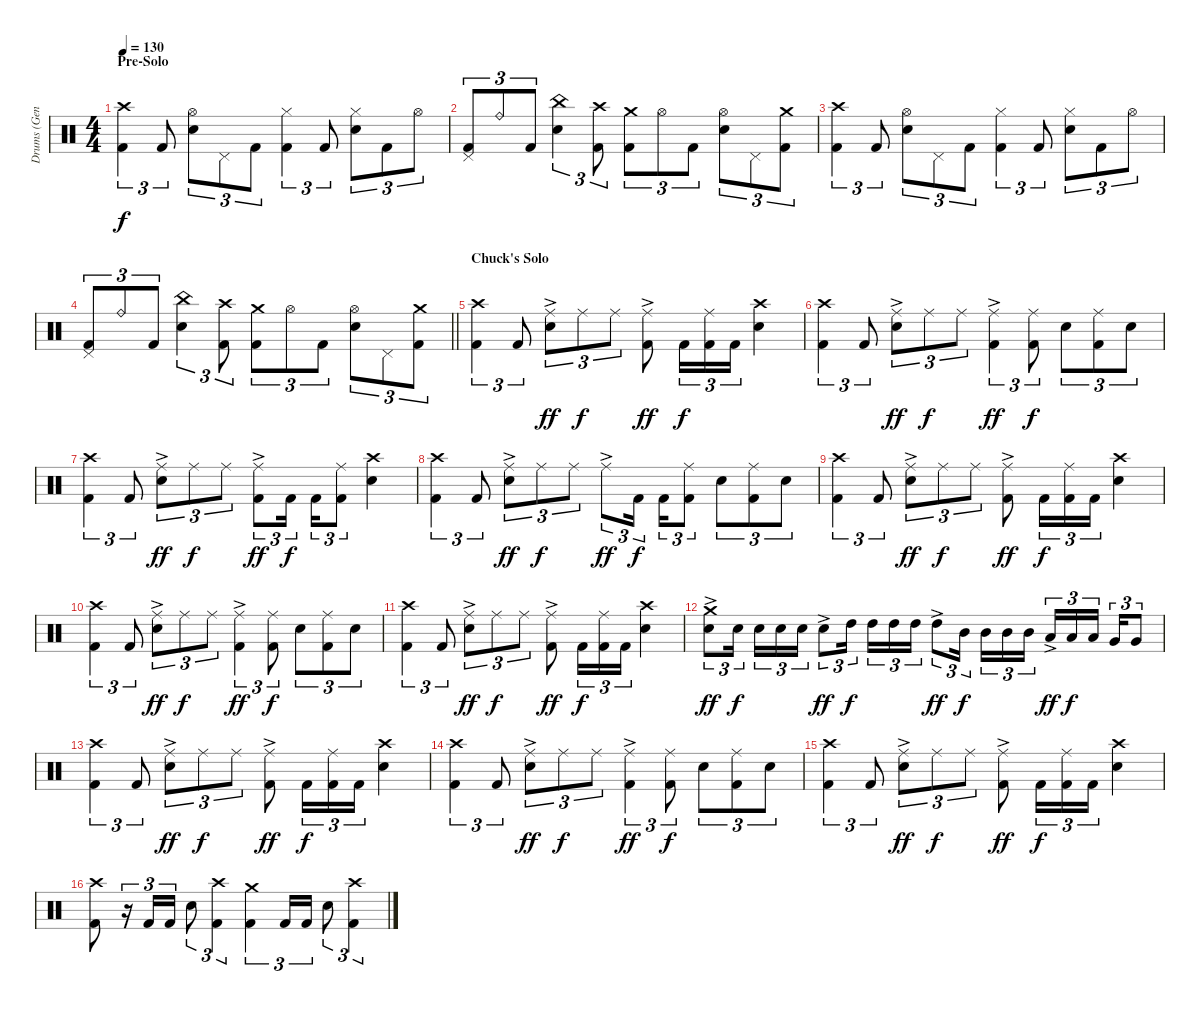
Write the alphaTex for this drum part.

\track ("Drums (Gene Hoglan)" "Drums (Gen") {instrument percussion}
\staff {score}
\articulation defaults
\ts (4 4)
\section ("" "Pre-Solo")
\tempo 130
\clef neutral
\ks c
("Crash high (hit)" "Kick (hit) 2").4{tu (3 2) dy f} "Kick (hit) 2".8{tu (3 2)} ("Hi-Hat (open)" "Snare (hit) 2").8{tu (3 2)} "Pedal Hi-Hat (hit)".8{tu (3 2)} "Kick (hit) 2".8{tu (3 2)} ("Hi-Hat (closed)" "Kick (hit) 2").4{tu (3 2)} "Kick (hit) 2".8{tu (3 2)} ("Hi-Hat (closed)" "Snare (hit) 2").8{tu (3 2)} "Kick (hit) 2".8{tu (3 2)} "Hi-Hat (open)".8{tu (3 2)} |
("Pedal Hi-Hat (hit)" "Kick (hit) 2").8{tu (3 2)} "Ride (bell)".8{tu (3 2)} "Kick (hit) 2".8{tu (3 2)} ("China (hit)" "Snare (hit) 2").4{tu (3 2)} ("Crash high (hit)" "Kick (hit) 2").8{tu (3 2)} ("Crash medium (hit)" "Kick (hit) 2").8{tu (3 2)} "Hi-Hat (open)".8{tu (3 2)} "Kick (hit) 2".8{tu (3 2)} ("Hi-Hat (open)" "Snare (hit) 2").8{tu (3 2)} "Pedal Hi-Hat (hit)".8{tu (3 2)} ("Crash medium (hit)" "Kick (hit) 2").8{tu (3 2)} |
("Crash high (hit)" "Kick (hit) 2").4{tu (3 2)} "Kick (hit) 2".8{tu (3 2)} ("Hi-Hat (open)" "Snare (hit) 2").8{tu (3 2)} "Pedal Hi-Hat (hit)".8{tu (3 2)} "Kick (hit) 2".8{tu (3 2)} ("Hi-Hat (closed)" "Kick (hit) 2").4{tu (3 2)} "Kick (hit) 2".8{tu (3 2)} ("Hi-Hat (closed)" "Snare (hit) 2").8{tu (3 2)} "Kick (hit) 2".8{tu (3 2)} "Hi-Hat (open)".8{tu (3 2)} |
\barLineRight lightlight
("Pedal Hi-Hat (hit)" "Kick (hit) 2").8{tu (3 2)} "Ride (bell)".8{tu (3 2)} "Kick (hit) 2".8{tu (3 2)} ("China (hit)" "Snare (hit) 2").4{tu (3 2)} ("Crash high (hit)" "Kick (hit) 2").8{tu (3 2)} ("Crash medium (hit)" "Kick (hit) 2").8{tu (3 2)} "Hi-Hat (open)".8{tu (3 2)} "Kick (hit) 2".8{tu (3 2)} ("Hi-Hat (open)" "Snare (hit) 2").8{tu (3 2)} "Pedal Hi-Hat (hit)".8{tu (3 2)} ("Crash medium (hit)" "Kick (hit) 2").8{tu (3 2)} |
\section ("" "Chuck's Solo")
("Crash high (hit)" "Kick (hit) 2").4{tu (3 2)} "Kick (hit) 2".8{tu (3 2)} ("Ride (middle)"{ac} "Snare (hit) 2").8{tu (3 2) dy ff} "Ride (middle)".8{tu (3 2) dy f} "Ride (middle)".8{tu (3 2)} ("Ride (middle)"{ac} "Kick (hit) 2").8{dy ff} "Kick (hit) 2".16{tu (3 2) dy f} ("Ride (middle)" "Kick (hit) 2").16{tu (3 2)} "Kick (hit) 2".16{tu (3 2)} ("Crash high (hit)" "Snare (hit) 2").4 |
("Crash high (hit)" "Kick (hit) 2").4{tu (3 2)} "Kick (hit) 2".8{tu (3 2)} ("Ride (middle)"{ac} "Snare (hit) 2").8{tu (3 2) dy ff} "Ride (middle)".8{tu (3 2) dy f} "Ride (middle)".8{tu (3 2)} ("Ride (middle)"{ac} "Kick (hit) 2").4{tu (3 2) dy ff} ("Ride (middle)" "Kick (hit) 2").8{tu (3 2) dy f} "Snare (hit) 2".8{tu (3 2)} ("Ride (middle)" "Kick (hit) 2").8{tu (3 2)} "Snare (hit) 2".8{tu (3 2)} |
("Crash high (hit)" "Kick (hit) 2").4{tu (3 2)} "Kick (hit) 2".8{tu (3 2)} ("Ride (middle)"{ac} "Snare (hit) 2").8{tu (3 2) dy ff} "Ride (middle)".8{tu (3 2) dy f} "Ride (middle)".8{tu (3 2)} ("Ride (middle)"{ac} "Kick (hit) 2").8{tu (3 2) dy ff} "Kick (hit) 2".16{tu (3 2) dy f beam splitsecondary} "Kick (hit) 2".16{tu (3 2)} ("Ride (middle)" "Kick (hit) 2").8{tu (3 2)} ("Crash high (hit)" "Snare (hit) 2").4 |
("Crash high (hit)" "Kick (hit) 2").4{tu (3 2)} "Kick (hit) 2".8{tu (3 2)} ("Ride (middle)"{ac} "Snare (hit) 2").8{tu (3 2) dy ff} "Ride (middle)".8{tu (3 2) dy f} "Ride (middle)".8{tu (3 2)} "Ride (middle)"{ac}.8{tu (3 2) dy ff} "Kick (hit) 2".16{tu (3 2) dy f beam splitsecondary} "Kick (hit) 2".16{tu (3 2)} ("Ride (middle)" "Kick (hit) 2").8{tu (3 2)} "Snare (hit) 2".8{tu (3 2)} ("Ride (middle)" "Kick (hit) 2").8{tu (3 2)} "Snare (hit) 2".8{tu (3 2)} |
("Crash high (hit)" "Kick (hit) 2").4{tu (3 2)} "Kick (hit) 2".8{tu (3 2)} ("Ride (middle)"{ac} "Snare (hit) 2").8{tu (3 2) dy ff} "Ride (middle)".8{tu (3 2) dy f} "Ride (middle)".8{tu (3 2)} ("Ride (middle)"{ac} "Kick (hit) 2").8{dy ff} "Kick (hit) 2".16{tu (3 2) dy f} ("Ride (middle)" "Kick (hit) 2").16{tu (3 2)} "Kick (hit) 2".16{tu (3 2)} ("Crash high (hit)" "Snare (hit) 2").4 |
("Crash high (hit)" "Kick (hit) 2").4{tu (3 2)} "Kick (hit) 2".8{tu (3 2)} ("Ride (middle)"{ac} "Snare (hit) 2").8{tu (3 2) dy ff} "Ride (middle)".8{tu (3 2) dy f} "Ride (middle)".8{tu (3 2)} ("Ride (middle)"{ac} "Kick (hit) 2").4{tu (3 2) dy ff} ("Ride (middle)" "Kick (hit) 2").8{tu (3 2) dy f} "Snare (hit) 2".8{tu (3 2)} ("Ride (middle)" "Kick (hit) 2").8{tu (3 2)} "Snare (hit) 2".8{tu (3 2)} |
("Crash high (hit)" "Kick (hit) 2").4{tu (3 2)} "Kick (hit) 2".8{tu (3 2)} ("Ride (middle)"{ac} "Snare (hit) 2").8{tu (3 2) dy ff} "Ride (middle)".8{tu (3 2) dy f} "Ride (middle)".8{tu (3 2)} ("Ride (middle)"{ac} "Kick (hit) 2").8{dy ff} "Kick (hit) 2".16{tu (3 2) dy f} ("Ride (middle)" "Kick (hit) 2").16{tu (3 2)} "Kick (hit) 2".16{tu (3 2)} ("Crash high (hit)" "Snare (hit) 2").4 |
("Crash medium (hit)"{ac} "Electric Snare (hit)"{ac}).8{tu (3 2) dy ff} "Electric Snare (hit)".16{tu (3 2) dy f beam splitsecondary} "Electric Snare (hit)".16{tu (3 2)} "Electric Snare (hit)".16{tu (3 2)} "Electric Snare (hit)".16{tu (3 2)} "Electric Snare (hit)"{ac}.8{tu (3 2) dy ff} "High Tom (hit)".16{tu (3 2) dy f beam splitsecondary} "High Tom (hit)".16{tu (3 2)} "High Tom (hit)".16{tu (3 2)} "High Tom (hit)".16{tu (3 2)} "High Tom (hit)"{ac}.8{tu (3 2) dy ff} "Mid Tom (hit)".16{tu (3 2) dy f beam splitsecondary} "Mid Tom (hit)".16{tu (3 2)} "Mid Tom (hit)".16{tu (3 2)} "Mid Tom (hit)".16{tu (3 2)} "Low Tom (hit)"{ac}.16{tu (3 2) dy ff} "Low Tom (hit)".16{tu (3 2) dy f} "Low Tom (hit)".16{tu (3 2) beam splitsecondary} "Very Low Tom (hit)".16{tu (3 2)} "Very Low Tom (hit)".8{tu (3 2)} |
("Crash high (hit)" "Kick (hit) 2").4{tu (3 2)} "Kick (hit) 2".8{tu (3 2)} ("Ride (middle)"{ac} "Snare (hit) 2").8{tu (3 2) dy ff} "Ride (middle)".8{tu (3 2) dy f} "Ride (middle)".8{tu (3 2)} ("Ride (middle)"{ac} "Kick (hit) 2").8{dy ff} "Kick (hit) 2".16{tu (3 2) dy f} ("Ride (middle)" "Kick (hit) 2").16{tu (3 2)} "Kick (hit) 2".16{tu (3 2)} ("Crash high (hit)" "Snare (hit) 2").4 |
("Crash high (hit)" "Kick (hit) 2").4{tu (3 2)} "Kick (hit) 2".8{tu (3 2)} ("Ride (middle)"{ac} "Snare (hit) 2").8{tu (3 2) dy ff} "Ride (middle)".8{tu (3 2) dy f} "Ride (middle)".8{tu (3 2)} ("Ride (middle)"{ac} "Kick (hit) 2").4{tu (3 2) dy ff} ("Ride (middle)" "Kick (hit) 2").8{tu (3 2) dy f} "Snare (hit) 2".8{tu (3 2)} ("Ride (middle)" "Kick (hit) 2").8{tu (3 2)} "Snare (hit) 2".8{tu (3 2)} |
("Crash high (hit)" "Kick (hit) 2").4{tu (3 2)} "Kick (hit) 2".8{tu (3 2)} ("Ride (middle)"{ac} "Snare (hit) 2").8{tu (3 2) dy ff} "Ride (middle)".8{tu (3 2) dy f} "Ride (middle)".8{tu (3 2)} ("Ride (middle)"{ac} "Kick (hit) 2").8{dy ff} "Kick (hit) 2".16{tu (3 2) dy f} ("Ride (middle)" "Kick (hit) 2").16{tu (3 2)} "Kick (hit) 2".16{tu (3 2)} ("Crash high (hit)" "Snare (hit) 2").4 |
("Crash high (hit)" "Kick (hit) 2").8 r.16{tu (3 2)} "Kick (hit) 2".16{tu (3 2)} "Kick (hit) 2".16{tu (3 2)} "Snare (hit) 2".8{tu (3 2)} ("Crash high (hit)" "Kick (hit) 2").4{tu (3 2)} ("Crash medium (hit)" "Kick (hit) 2").4{tu (3 2)} "Kick (hit) 2".16{tu (3 2)} "Kick (hit) 2".16{tu (3 2)} "Snare (hit) 2".8{tu (3 2)} ("Crash high (hit)" "Kick (hit) 2").4{tu (3 2)}
